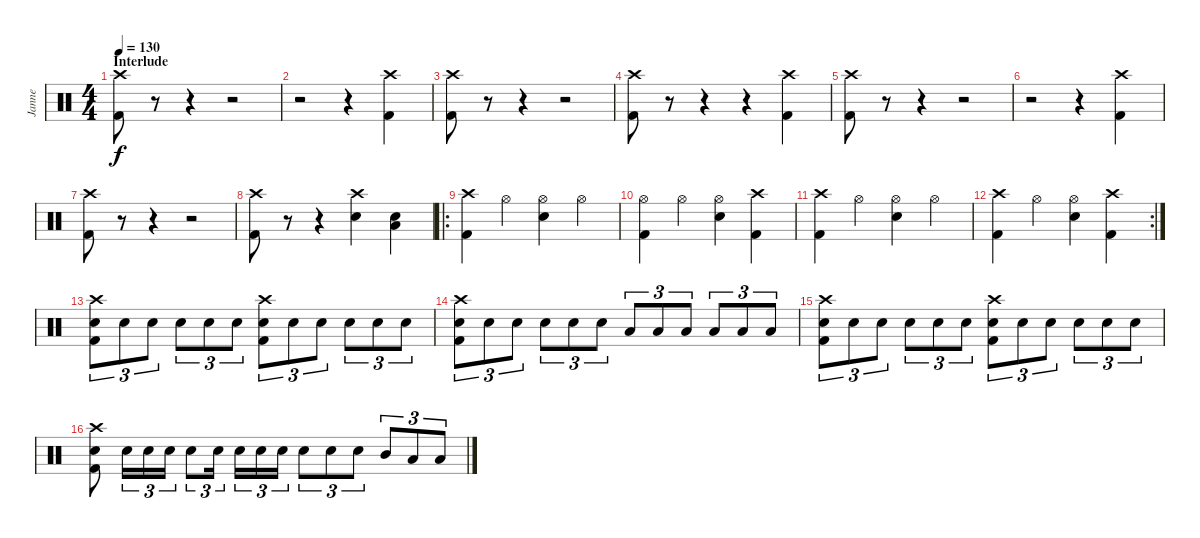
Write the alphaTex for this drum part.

\track ("Janne" "Janne") {instrument percussion}
\staff {score}
\articulation defaults
\ts (4 4)
\section ("" "Interlude")
\tempo 130
\clef neutral
\ks c
("Crash high (hit)" "Kick (hit) 2").8{dy f} r.8 r.4 r.2 |
r.2 r.4 ("Crash high (hit)" "Kick (hit) 2").4 |
("Crash high (hit)" "Kick (hit) 2").8 r.8 r.4 r.2 |
("Crash high (hit)" "Kick (hit) 2").8 r.8 r.4 r.4 ("Crash high (hit)" "Kick (hit) 2").4 |
("Crash high (hit)" "Kick (hit) 2").8 r.8 r.4 r.2 |
r.2 r.4 ("Crash high (hit)" "Kick (hit) 2").4 |
("Crash high (hit)" "Kick (hit) 2").8 r.8 r.4 r.2 |
("Crash high (hit)" "Kick (hit) 2").8 r.8 r.4 ("Crash high (hit)" "Electric Snare (hit)").4 ("Low Floor Tom (hit)" "Electric Snare (hit)").4 |
\ro
("Crash high (hit)" "Kick (hit) 2").4 "Hi-Hat (open)".4 ("Hi-Hat (open)" "Electric Snare (hit)").4 "Hi-Hat (open)".4 |
("Hi-Hat (open)" "Kick (hit) 2").4 "Hi-Hat (open)".4 ("Hi-Hat (open)" "Electric Snare (hit)").4 ("Crash high (hit)" "Kick (hit) 2").4 |
("Crash high (hit)" "Kick (hit) 2").4 "Hi-Hat (open)".4 ("Hi-Hat (open)" "Electric Snare (hit)").4 "Hi-Hat (open)".4 |
\rc 2
("Crash high (hit)" "Kick (hit) 2").4 "Hi-Hat (open)".4 ("Hi-Hat (open)" "Electric Snare (hit)").4 ("Crash high (hit)" "Kick (hit) 2").4 |
("Crash high (hit)" "Electric Snare (hit)" "Kick (hit) 2").8{tu (3 2)} "Electric Snare (hit)".8{tu (3 2)} "Electric Snare (hit)".8{tu (3 2)} "Electric Snare (hit)".8{tu (3 2)} "Electric Snare (hit)".8{tu (3 2)} "Electric Snare (hit)".8{tu (3 2)} ("Crash high (hit)" "Electric Snare (hit)" "Kick (hit) 2").8{tu (3 2)} "Electric Snare (hit)".8{tu (3 2)} "Electric Snare (hit)".8{tu (3 2)} "Electric Snare (hit)".8{tu (3 2)} "Electric Snare (hit)".8{tu (3 2)} "Electric Snare (hit)".8{tu (3 2)} |
("Crash high (hit)" "Electric Snare (hit)" "Kick (hit) 2").8{tu (3 2)} "Electric Snare (hit)".8{tu (3 2)} "Electric Snare (hit)".8{tu (3 2)} "Electric Snare (hit)".8{tu (3 2)} "Electric Snare (hit)".8{tu (3 2)} "Electric Snare (hit)".8{tu (3 2)} "Low Tom (hit)".8{tu (3 2)} "Low Tom (hit)".8{tu (3 2)} "Low Tom (hit)".8{tu (3 2)} "Low Floor Tom (hit)".8{tu (3 2)} "Low Floor Tom (hit)".8{tu (3 2)} "Low Floor Tom (hit)".8{tu (3 2)} |
("Crash high (hit)" "Electric Snare (hit)" "Kick (hit) 2").8{tu (3 2)} "Electric Snare (hit)".8{tu (3 2)} "Electric Snare (hit)".8{tu (3 2)} "Electric Snare (hit)".8{tu (3 2)} "Electric Snare (hit)".8{tu (3 2)} "Electric Snare (hit)".8{tu (3 2)} ("Crash high (hit)" "Electric Snare (hit)" "Kick (hit) 2").8{tu (3 2)} "Electric Snare (hit)".8{tu (3 2)} "Electric Snare (hit)".8{tu (3 2)} "Electric Snare (hit)".8{tu (3 2)} "Electric Snare (hit)".8{tu (3 2)} "Electric Snare (hit)".8{tu (3 2)} |
("Crash high (hit)" "Electric Snare (hit)" "Kick (hit) 2").8 "Electric Snare (hit)".16{tu (3 2)} "Electric Snare (hit)".16{tu (3 2)} "Electric Snare (hit)".16{tu (3 2)} "Electric Snare (hit)".8{tu (3 2)} "Electric Snare (hit)".16{tu (3 2)} "Electric Snare (hit)".16{tu (3 2)} "Electric Snare (hit)".16{tu (3 2)} "Electric Snare (hit)".16{tu (3 2)} "Electric Snare (hit)".8{tu (3 2)} "Electric Snare (hit)".8{tu (3 2)} "Electric Snare (hit)".8{tu (3 2)} "Mid Tom (hit)".8{tu (3 2)} "Low Tom (hit)".8{tu (3 2)} "Low Floor Tom (hit)".8{tu (3 2)}
